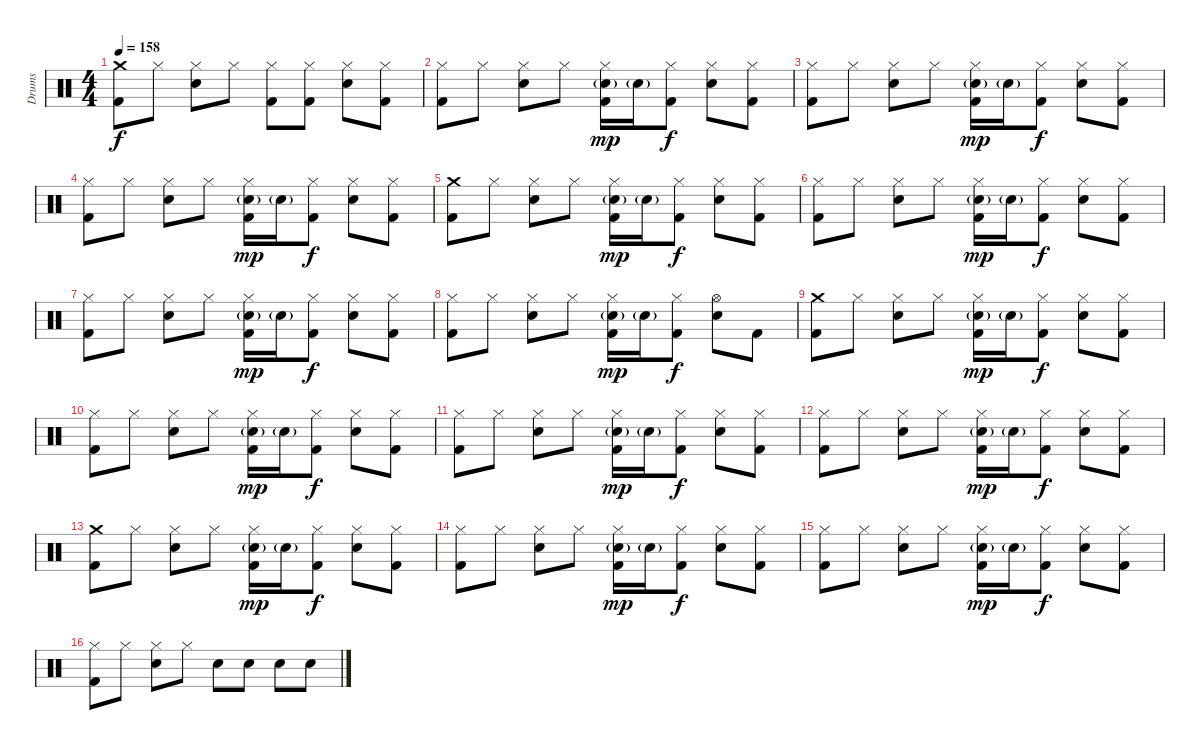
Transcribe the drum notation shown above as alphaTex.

\track ("Drums" "Drums") {instrument percussion}
\staff {score}
\articulation defaults
\ts (4 4)
\tempo 158
\clef neutral
\ks c
("Crash medium (hit)" "Kick (hit) 2").8{dy f} "Hi-Hat (closed)".8 ("Hi-Hat (closed)" "Electric Snare (hit)").8 "Hi-Hat (closed)".8 ("Hi-Hat (closed)" "Kick (hit) 2").8 ("Hi-Hat (closed)" "Kick (hit) 2").8 ("Hi-Hat (closed)" "Electric Snare (hit)").8 ("Hi-Hat (closed)" "Kick (hit) 2").8 |
("Hi-Hat (closed)" "Kick (hit) 2").8 "Hi-Hat (closed)".8 ("Hi-Hat (closed)" "Electric Snare (hit)").8 "Hi-Hat (closed)".8 ("Hi-Hat (closed)" "Electric Snare (hit)"{g} "Kick (hit) 2").16{dy mp} "Electric Snare (hit)"{g}.16 ("Hi-Hat (closed)" "Kick (hit) 2").8{dy f} ("Hi-Hat (closed)" "Electric Snare (hit)").8 ("Hi-Hat (closed)" "Kick (hit) 2").8 |
("Hi-Hat (closed)" "Kick (hit) 2").8 "Hi-Hat (closed)".8 ("Hi-Hat (closed)" "Electric Snare (hit)").8 "Hi-Hat (closed)".8 ("Hi-Hat (closed)" "Electric Snare (hit)"{g} "Kick (hit) 2").16{dy mp} "Electric Snare (hit)"{g}.16 ("Hi-Hat (closed)" "Kick (hit) 2").8{dy f} ("Hi-Hat (closed)" "Electric Snare (hit)").8 ("Hi-Hat (closed)" "Kick (hit) 2").8 |
("Hi-Hat (closed)" "Kick (hit) 2").8 "Hi-Hat (closed)".8 ("Hi-Hat (closed)" "Electric Snare (hit)").8 "Hi-Hat (closed)".8 ("Hi-Hat (closed)" "Electric Snare (hit)"{g} "Kick (hit) 2").16{dy mp} "Electric Snare (hit)"{g}.16 ("Hi-Hat (closed)" "Kick (hit) 2").8{dy f} ("Hi-Hat (closed)" "Electric Snare (hit)").8 ("Hi-Hat (closed)" "Kick (hit) 2").8 |
("Crash medium (hit)" "Kick (hit) 2").8 "Hi-Hat (closed)".8 ("Hi-Hat (closed)" "Electric Snare (hit)").8 "Hi-Hat (closed)".8 ("Hi-Hat (closed)" "Electric Snare (hit)"{g} "Kick (hit) 2").16{dy mp} "Electric Snare (hit)"{g}.16 ("Hi-Hat (closed)" "Kick (hit) 2").8{dy f} ("Hi-Hat (closed)" "Electric Snare (hit)").8 ("Hi-Hat (closed)" "Kick (hit) 2").8 |
("Hi-Hat (closed)" "Kick (hit) 2").8 "Hi-Hat (closed)".8 ("Hi-Hat (closed)" "Electric Snare (hit)").8 "Hi-Hat (closed)".8 ("Hi-Hat (closed)" "Electric Snare (hit)"{g} "Kick (hit) 2").16{dy mp} "Electric Snare (hit)"{g}.16 ("Hi-Hat (closed)" "Kick (hit) 2").8{dy f} ("Hi-Hat (closed)" "Electric Snare (hit)").8 ("Hi-Hat (closed)" "Kick (hit) 2").8 |
("Hi-Hat (closed)" "Kick (hit) 2").8 "Hi-Hat (closed)".8 ("Hi-Hat (closed)" "Electric Snare (hit)").8 "Hi-Hat (closed)".8 ("Hi-Hat (closed)" "Electric Snare (hit)"{g} "Kick (hit) 2").16{dy mp} "Electric Snare (hit)"{g}.16 ("Hi-Hat (closed)" "Kick (hit) 2").8{dy f} ("Hi-Hat (closed)" "Electric Snare (hit)").8 ("Hi-Hat (closed)" "Kick (hit) 2").8 |
("Hi-Hat (closed)" "Kick (hit) 2").8 "Hi-Hat (closed)".8 ("Hi-Hat (closed)" "Electric Snare (hit)").8 "Hi-Hat (closed)".8 ("Hi-Hat (closed)" "Electric Snare (hit)"{g} "Kick (hit) 2").16{dy mp} "Electric Snare (hit)"{g}.16 ("Hi-Hat (closed)" "Kick (hit) 2").8{dy f} ("Hi-Hat (open)" "Electric Snare (hit)").8 "Kick (hit) 2".8 |
("Crash medium (hit)" "Kick (hit) 2").8 "Hi-Hat (closed)".8 ("Hi-Hat (closed)" "Electric Snare (hit)").8 "Hi-Hat (closed)".8 ("Hi-Hat (closed)" "Electric Snare (hit)"{g} "Kick (hit) 2").16{dy mp} "Electric Snare (hit)"{g}.16 ("Hi-Hat (closed)" "Kick (hit) 2").8{dy f} ("Hi-Hat (closed)" "Electric Snare (hit)").8 ("Hi-Hat (closed)" "Kick (hit) 2").8 |
("Hi-Hat (closed)" "Kick (hit) 2").8 "Hi-Hat (closed)".8 ("Hi-Hat (closed)" "Electric Snare (hit)").8 "Hi-Hat (closed)".8 ("Hi-Hat (closed)" "Electric Snare (hit)"{g} "Kick (hit) 2").16{dy mp} "Electric Snare (hit)"{g}.16 ("Hi-Hat (closed)" "Kick (hit) 2").8{dy f} ("Hi-Hat (closed)" "Electric Snare (hit)").8 ("Hi-Hat (closed)" "Kick (hit) 2").8 |
("Hi-Hat (closed)" "Kick (hit) 2").8 "Hi-Hat (closed)".8 ("Hi-Hat (closed)" "Electric Snare (hit)").8 "Hi-Hat (closed)".8 ("Hi-Hat (closed)" "Electric Snare (hit)"{g} "Kick (hit) 2").16{dy mp} "Electric Snare (hit)"{g}.16 ("Hi-Hat (closed)" "Kick (hit) 2").8{dy f} ("Hi-Hat (closed)" "Electric Snare (hit)").8 ("Hi-Hat (closed)" "Kick (hit) 2").8 |
("Hi-Hat (closed)" "Kick (hit) 2").8 "Hi-Hat (closed)".8 ("Hi-Hat (closed)" "Electric Snare (hit)").8 "Hi-Hat (closed)".8 ("Hi-Hat (closed)" "Electric Snare (hit)"{g} "Kick (hit) 2").16{dy mp} "Electric Snare (hit)"{g}.16 ("Hi-Hat (closed)" "Kick (hit) 2").8{dy f} ("Hi-Hat (closed)" "Electric Snare (hit)").8 ("Hi-Hat (closed)" "Kick (hit) 2").8 |
("Crash medium (hit)" "Kick (hit) 2").8 "Hi-Hat (closed)".8 ("Hi-Hat (closed)" "Electric Snare (hit)").8 "Hi-Hat (closed)".8 ("Hi-Hat (closed)" "Electric Snare (hit)"{g} "Kick (hit) 2").16{dy mp} "Electric Snare (hit)"{g}.16 ("Hi-Hat (closed)" "Kick (hit) 2").8{dy f} ("Hi-Hat (closed)" "Electric Snare (hit)").8 ("Hi-Hat (closed)" "Kick (hit) 2").8 |
("Hi-Hat (closed)" "Kick (hit) 2").8 "Hi-Hat (closed)".8 ("Hi-Hat (closed)" "Electric Snare (hit)").8 "Hi-Hat (closed)".8 ("Hi-Hat (closed)" "Electric Snare (hit)"{g} "Kick (hit) 2").16{dy mp} "Electric Snare (hit)"{g}.16 ("Hi-Hat (closed)" "Kick (hit) 2").8{dy f} ("Hi-Hat (closed)" "Electric Snare (hit)").8 ("Hi-Hat (closed)" "Kick (hit) 2").8 |
("Hi-Hat (closed)" "Kick (hit) 2").8 "Hi-Hat (closed)".8 ("Hi-Hat (closed)" "Electric Snare (hit)").8 "Hi-Hat (closed)".8 ("Hi-Hat (closed)" "Electric Snare (hit)"{g} "Kick (hit) 2").16{dy mp} "Electric Snare (hit)"{g}.16 ("Hi-Hat (closed)" "Kick (hit) 2").8{dy f} ("Hi-Hat (closed)" "Electric Snare (hit)").8 ("Hi-Hat (closed)" "Kick (hit) 2").8 |
("Hi-Hat (closed)" "Kick (hit) 2").8 "Hi-Hat (closed)".8 ("Hi-Hat (closed)" "Electric Snare (hit)").8 "Hi-Hat (closed)".8 "Electric Snare (hit)".8 "Electric Snare (hit)".8 "Electric Snare (hit)".8 "Electric Snare (hit)".8
